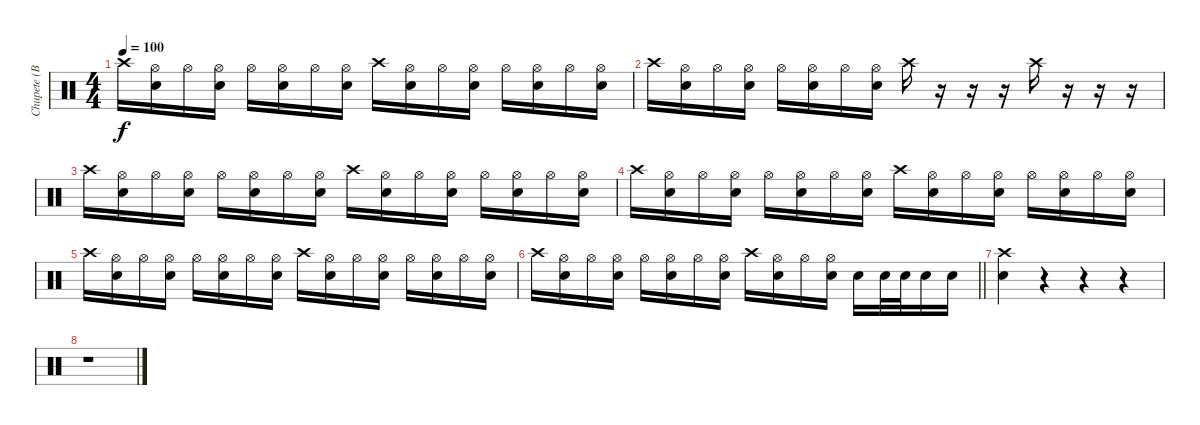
\track ("Chupete (Bateria)" "Chupete (B") {instrument percussion}
\staff {score}
\articulation defaults
\ts (4 4)
\tempo 100
\clef neutral
\ks c "Crash high (hit)".16{dy f}
("Hi-Hat (open)" "Electric Snare (hit)").16 "Hi-Hat (open)".16 ("Hi-Hat (open)" "Electric Snare (hit)").16 "Hi-Hat (open)".16 ("Hi-Hat (open)" "Electric Snare (hit)").16 "Hi-Hat (open)".16 ("Hi-Hat (open)" "Electric Snare (hit)").16 "Crash high (hit)".16 ("Hi-Hat (open)" "Electric Snare (hit)").16 "Hi-Hat (open)".16 ("Hi-Hat (open)" "Electric Snare (hit)").16 "Hi-Hat (open)".16 ("Hi-Hat (open)" "Electric Snare (hit)").16 "Hi-Hat (open)".16 ("Hi-Hat (open)" "Electric Snare (hit)").16 |
"Crash high (hit)".16 ("Hi-Hat (open)" "Electric Snare (hit)").16 "Hi-Hat (open)".16 ("Hi-Hat (open)" "Electric Snare (hit)").16 "Hi-Hat (open)".16 ("Hi-Hat (open)" "Electric Snare (hit)").16 "Hi-Hat (open)".16 ("Hi-Hat (open)" "Electric Snare (hit)").16 "Crash high (hit)".16 r.16 r.16 r.16 "Crash high (hit)".16 r.16 r.16 r.16 |
"Crash high (hit)".16 ("Hi-Hat (open)" "Electric Snare (hit)").16 "Hi-Hat (open)".16 ("Hi-Hat (open)" "Electric Snare (hit)").16 "Hi-Hat (open)".16 ("Hi-Hat (open)" "Electric Snare (hit)").16 "Hi-Hat (open)".16 ("Hi-Hat (open)" "Electric Snare (hit)").16 "Crash high (hit)".16 ("Hi-Hat (open)" "Electric Snare (hit)").16 "Hi-Hat (open)".16 ("Hi-Hat (open)" "Electric Snare (hit)").16 "Hi-Hat (open)".16 ("Hi-Hat (open)" "Electric Snare (hit)").16 "Hi-Hat (open)".16 ("Hi-Hat (open)" "Electric Snare (hit)").16 |
"Crash high (hit)".16 ("Hi-Hat (open)" "Electric Snare (hit)").16 "Hi-Hat (open)".16 ("Hi-Hat (open)" "Electric Snare (hit)").16 "Hi-Hat (open)".16 ("Hi-Hat (open)" "Electric Snare (hit)").16 "Hi-Hat (open)".16 ("Hi-Hat (open)" "Electric Snare (hit)").16 "Crash high (hit)".16 ("Hi-Hat (open)" "Electric Snare (hit)").16 "Hi-Hat (open)".16 ("Hi-Hat (open)" "Electric Snare (hit)").16 "Hi-Hat (open)".16 ("Hi-Hat (open)" "Electric Snare (hit)").16 "Hi-Hat (open)".16 ("Hi-Hat (open)" "Electric Snare (hit)").16 |
"Crash high (hit)".16 ("Hi-Hat (open)" "Electric Snare (hit)").16 "Hi-Hat (open)".16 ("Hi-Hat (open)" "Electric Snare (hit)").16 "Hi-Hat (open)".16 ("Hi-Hat (open)" "Electric Snare (hit)").16 "Hi-Hat (open)".16 ("Hi-Hat (open)" "Electric Snare (hit)").16 "Crash high (hit)".16 ("Hi-Hat (open)" "Electric Snare (hit)").16 "Hi-Hat (open)".16 ("Hi-Hat (open)" "Electric Snare (hit)").16 "Hi-Hat (open)".16 ("Hi-Hat (open)" "Electric Snare (hit)").16 "Hi-Hat (open)".16 ("Hi-Hat (open)" "Electric Snare (hit)").16 |
\barLineRight lightlight "Crash high (hit)".16
("Hi-Hat (open)" "Electric Snare (hit)").16 "Hi-Hat (open)".16 ("Hi-Hat (open)" "Electric Snare (hit)").16 "Hi-Hat (open)".16 ("Hi-Hat (open)" "Electric Snare (hit)").16 "Hi-Hat (open)".16 ("Hi-Hat (open)" "Electric Snare (hit)").16 "Crash high (hit)".16 ("Hi-Hat (open)" "Electric Snare (hit)").16 "Hi-Hat (open)".16 ("Hi-Hat (open)" "Electric Snare (hit)").16 "Electric Snare (hit)".16 "Electric Snare (hit)".32 "Electric Snare (hit)".32 "Electric Snare (hit)".16 "Electric Snare (hit)".16 |
("Crash high (hit)" "Electric Snare (hit)").4 r.4 r.4 r.4 |
r.1
